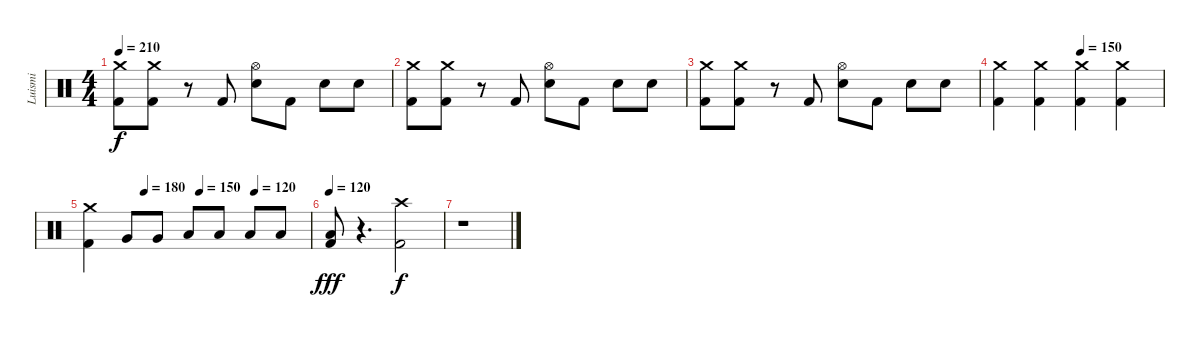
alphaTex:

\track ("Luismi" "Luismi") {instrument percussion}
\staff {score}
\articulation defaults
\ts (4 4)
\tempo 210
\clef neutral
\ks c
("Crash medium (hit)" "Kick (hit) 2").8{dy f} ("Crash medium (hit)" "Kick (hit) 2").8 r.8 "Kick (hit) 2".8 ("Hi-Hat (open)" "Snare (hit) 2").8 "Kick (hit) 2".8 "Snare (hit) 2".8 "Snare (hit) 2".8 |
("Crash medium (hit)" "Kick (hit) 2").8 ("Crash medium (hit)" "Kick (hit) 2").8 r.8 "Kick (hit) 2".8 ("Hi-Hat (open)" "Snare (hit) 2").8 "Kick (hit) 2".8 "Snare (hit) 2".8 "Snare (hit) 2".8 |
("Crash medium (hit)" "Kick (hit) 2").8 ("Crash medium (hit)" "Kick (hit) 2").8 r.8 "Kick (hit) 2".8 ("Hi-Hat (open)" "Snare (hit) 2").8 "Kick (hit) 2".8 "Snare (hit) 2".8 "Snare (hit) 2".8 |
\tempo (150 0.5)
("Crash medium (hit)" "Kick (hit) 2").4 ("Crash medium (hit)" "Kick (hit) 2").4 ("Crash medium (hit)" "Kick (hit) 2").4 ("Crash medium (hit)" "Kick (hit) 2").4 |
\tempo (180 0.25)
\tempo (150 0.5)
\tempo (120 0.75)
("Crash medium (hit)" "Kick (hit) 2").4 "Very Low Tom (hit)".8 "Very Low Tom (hit)".8 "Low Floor Tom (hit)".8 "Low Floor Tom (hit)".8 "Low Floor Tom (hit)".8 "Low Floor Tom (hit)".8 |
\tempo 120
("Low Floor Tom (hit)" "Kick (hit) 2").8{dy fff} r.4{d} ("Crash high (hit)" "Kick (hit) 2").2{dy f} |
r.1
